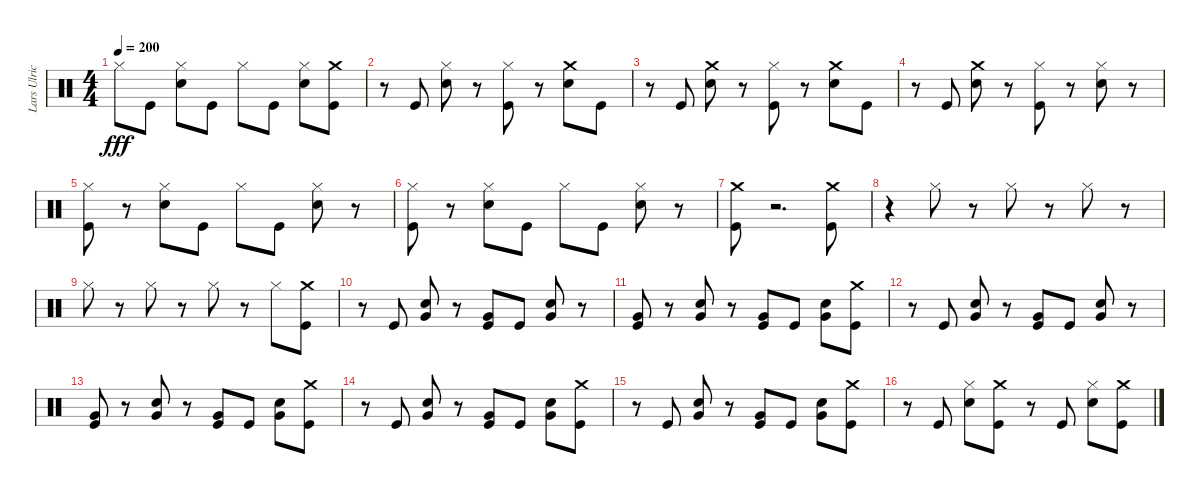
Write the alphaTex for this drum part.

\track ("Lars Ulrich" "Lars Ulric") {instrument percussion}
\staff {score}
\articulation defaults
\ts (4 4)
\tempo 200
\clef neutral
\ks c "Hi-Hat (closed)".8{dy fff} "Kick (hit)".8
("Hi-Hat (closed)" "Snare (hit) 2").8 "Kick (hit)".8 "Hi-Hat (closed)".8 "Kick (hit)".8 ("Hi-Hat (closed)" "Snare (hit) 2").8 ("Crash medium (hit)" "Kick (hit)").8 |
r.8 "Kick (hit)".8 ("Hi-Hat (closed)" "Snare (hit) 2").8 r.8 ("Kick (hit)" "Hi-Hat (closed)").8 r.8 ("Crash medium (hit)" "Snare (hit) 2").8 "Kick (hit)".8 |
r.8 "Kick (hit)".8 ("Crash medium (hit)" "Snare (hit) 2").8 r.8 ("Kick (hit)" "Hi-Hat (closed)").8 r.8 ("Crash medium (hit)" "Snare (hit) 2").8 "Kick (hit)".8 |
r.8 "Kick (hit)".8 ("Crash medium (hit)" "Snare (hit) 2").8 r.8 ("Kick (hit)" "Hi-Hat (closed)").8 r.8 ("Hi-Hat (closed)" "Snare (hit) 2").8 r.8 |
("Hi-Hat (closed)" "Kick (hit)").8 r.8 ("Hi-Hat (closed)" "Snare (hit) 2").8 "Kick (hit)".8 "Hi-Hat (closed)".8 "Kick (hit)".8 ("Hi-Hat (closed)" "Snare (hit) 2").8 r.8 |
("Hi-Hat (closed)" "Kick (hit)").8 r.8 ("Hi-Hat (closed)" "Snare (hit) 2").8 "Kick (hit)".8 "Hi-Hat (closed)".8 "Kick (hit)".8 ("Hi-Hat (closed)" "Snare (hit) 2").8 r.8 |
("Crash medium (hit)" "Kick (hit)").8 r.2{d} ("Crash medium (hit)" "Kick (hit)").8 |
r.4 "Hi-Hat (closed)".8 r.8 "Hi-Hat (closed)".8 r.8 "Hi-Hat (closed)".8 r.8 |
"Hi-Hat (closed)".8 r.8 "Hi-Hat (closed)".8 r.8 "Hi-Hat (closed)".8 r.8 "Hi-Hat (closed)".8 ("Crash medium (hit)" "Kick (hit)").8 |
r.8 "Kick (hit)".8 ("Snare (hit) 2" "Very Low Tom (hit)").8 r.8 ("Very Low Tom (hit)" "Kick (hit)").8 "Kick (hit)".8 ("Very Low Tom (hit)" "Snare (hit) 2").8 r.8 |
("Very Low Tom (hit)" "Kick (hit)").8 r.8 ("Very Low Tom (hit)" "Snare (hit) 2").8 r.8 ("Kick (hit)" "Very Low Tom (hit)").8 "Kick (hit)".8 ("Very Low Tom (hit)" "Snare (hit) 2").8 ("Crash medium (hit)" "Kick (hit)").8 |
r.8 "Kick (hit)".8 ("Very Low Tom (hit)" "Snare (hit) 2").8 r.8 ("Kick (hit)" "Very Low Tom (hit)").8 "Kick (hit)".8 ("Snare (hit) 2" "Very Low Tom (hit)").8 r.8 |
("Very Low Tom (hit)" "Kick (hit)").8 r.8 ("Very Low Tom (hit)" "Snare (hit) 2").8 r.8 ("Kick (hit)" "Very Low Tom (hit)").8 "Kick (hit)".8 ("Very Low Tom (hit)" "Snare (hit) 2").8 ("Crash medium (hit)" "Kick (hit)").8 |
r.8 "Kick (hit)".8 ("Very Low Tom (hit)" "Snare (hit) 2").8 r.8 ("Very Low Tom (hit)" "Kick (hit)").8 "Kick (hit)".8 ("Very Low Tom (hit)" "Snare (hit) 2").8 ("Crash medium (hit)" "Kick (hit)").8 |
r.8 "Kick (hit)".8 ("Very Low Tom (hit)" "Snare (hit) 2").8 r.8 ("Very Low Tom (hit)" "Kick (hit)").8 "Kick (hit)".8 ("Snare (hit) 2" "Very Low Tom (hit)").8 ("Crash medium (hit)" "Kick (hit)").8 |
r.8 "Kick (hit)".8 ("Hi-Hat (closed)" "Snare (hit) 2").8 ("Crash medium (hit)" "Kick (hit)").8 r.8 "Kick (hit)".8 ("Hi-Hat (closed)" "Snare (hit) 2").8 ("Crash medium (hit)" "Kick (hit)").8
